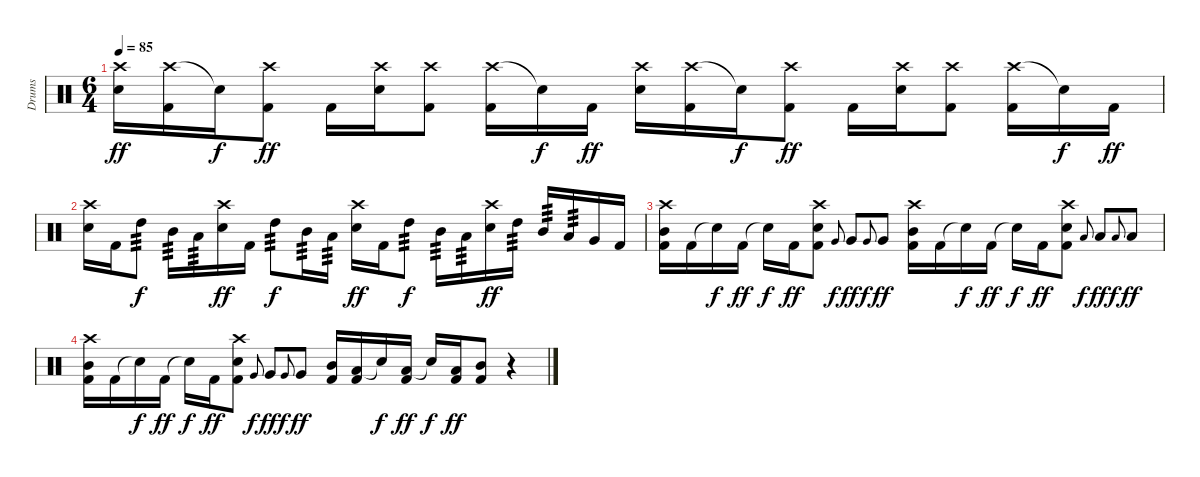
\track ("Drums" "Drums") {instrument percussion}
\staff {score}
\articulation defaults
\ts (6 4)
\section ("" "")
\tempo 85
\clef neutral
\ks c
("Crash high (hit)" "Snare (hit) 2").16{dy ff} ("Crash high (hit)" "Kick (hit) 2").16 "Snare (hit)"{t}.16{dy f} ("Crash high (hit)" "Kick (hit) 2").8{dy ff} "Kick (hit) 2".16 ("Crash high (hit)" "Snare (hit) 2").16 ("Crash high (hit)" "Kick (hit) 2").8 ("Crash high (hit)" "Kick (hit) 2").16 "Snare (hit)"{t}.16{dy f} "Kick (hit) 2".16{dy ff} ("Crash high (hit)" "Snare (hit) 2").16 ("Crash high (hit)" "Kick (hit) 2").16 "Snare (hit)"{t}.16{dy f} ("Crash high (hit)" "Kick (hit) 2").8{dy ff} "Kick (hit) 2".16 ("Crash high (hit)" "Snare (hit) 2").16 ("Crash high (hit)" "Kick (hit) 2").8 ("Crash high (hit)" "Kick (hit) 2").16 "Snare (hit)"{t}.16{dy f} "Kick (hit) 2".16{dy ff} |
("Crash high (hit)" "Snare (hit) 2").16 "Kick (hit) 2".16 "High Tom (hit)".8{tp 3 dy f} "Mid Tom (hit)".16{tp 3} "Low Tom (hit)".16{tp 3} ("Crash high (hit)" "Snare (hit) 2").16{dy ff} "Kick (hit) 2".16 "High Tom (hit)".8{tp 3 dy f} "Mid Tom (hit)".16{tp 3} "Low Tom (hit)".16{tp 3} ("Crash high (hit)" "Snare (hit) 2").16{dy ff} "Kick (hit) 2".16 "High Tom (hit)".8{tp 3 dy f} "Mid Tom (hit)".16{tp 3} "Low Tom (hit)".16{tp 3} ("Crash high (hit)" "Snare (hit) 2").16{dy ff} "High Tom (hit)".16{tp 3} "Mid Tom (hit)".16{tp 3} "Low Tom (hit)".16{tp 3} "Very Low Tom (hit)".16 "Kick (hit) 2".16 |
("Crash high (hit)" "Mid Tom (hit)" "Kick (hit) 2").16 "Kick (hit) 2".16 "Snare (hit)"{t}.16{dy f} "Kick (hit) 2".16{dy ff} "Snare (hit)"{t}.16{dy f} "Kick (hit) 2".16{dy ff} ("Crash high (hit)" "Snare (hit) 2" "Kick (hit) 2").8 "Very Low Tom (hit)".8{gr onbeat dy f} "Very Low Tom (hit)".8{dy ff} "Very Low Tom (hit)".8{gr onbeat dy f} "Very Low Tom (hit)".8{dy ff} ("Crash high (hit)" "Mid Tom (hit)" "Kick (hit) 2").16 "Kick (hit) 2".16 "Snare (hit)"{t}.16{dy f} "Kick (hit) 2".16{dy ff} "Snare (hit)"{t}.16{dy f} "Kick (hit) 2".16{dy ff} ("Crash high (hit)" "Snare (hit) 2" "Kick (hit) 2").8 "Low Tom (hit)".8{gr onbeat dy f} "Low Tom (hit)".8{dy ff} "Low Tom (hit)".8{gr onbeat dy f} "Low Tom (hit)".8{dy ff} |
("Crash high (hit)" "Mid Tom (hit)" "Kick (hit) 2").16 "Kick (hit) 2".16 "Snare (hit)"{t}.16{dy f} "Kick (hit) 2".16{dy ff} "Snare (hit)"{t}.16{dy f} "Kick (hit) 2".16{dy ff} ("Crash high (hit)" "Snare (hit) 2" "Kick (hit) 2").8 "Very Low Tom (hit)".8{gr onbeat dy f} "Very Low Tom (hit)".8{dy ff} "Very Low Tom (hit)".8{gr onbeat dy f} "Very Low Tom (hit)".8{dy ff} ("Mid Tom (hit)" "Kick (hit) 2").16 ("Low Tom (hit)" "Kick (hit) 2").16 "Snare (hit)"{t}.16{dy f} ("Low Tom (hit)" "Kick (hit) 2").16{dy ff} "Snare (hit)"{t}.16{dy f} ("Low Tom (hit)" "Kick (hit) 2").16{dy ff} ("Mid Tom (hit)" "Kick (hit) 2").8 r.4
